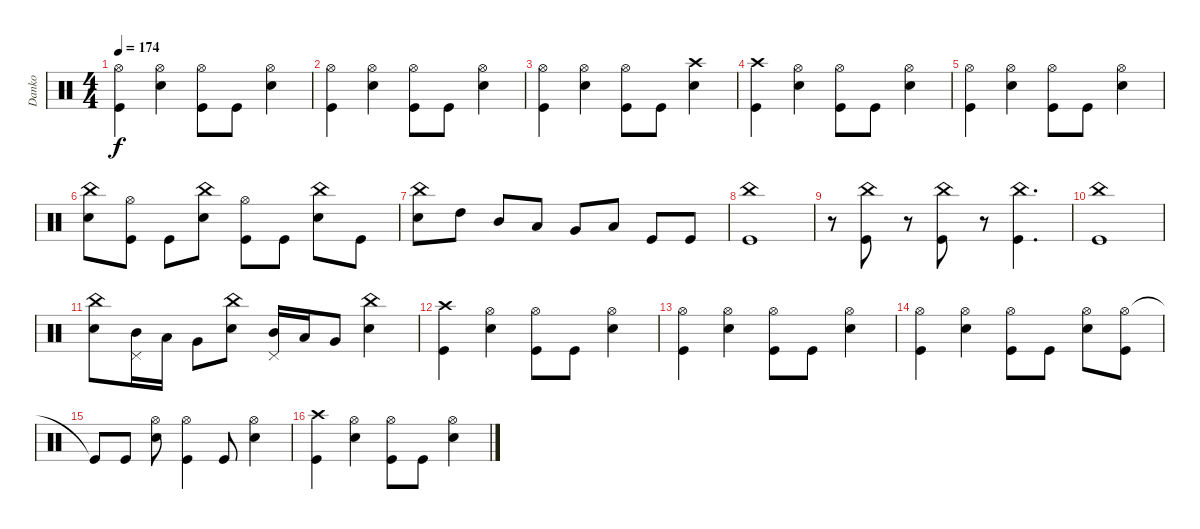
\track ("Danko" "Danko") {instrument percussion}
\staff {score}
\articulation defaults
\ts (4 4)
\tempo 174
\clef neutral
\ks c
("Hi-Hat (open)" "Kick (hit)").4{dy f} ("Hi-Hat (open)" "Snare (hit) 2").4 ("Hi-Hat (open)" "Kick (hit)").8 "Kick (hit)".8 ("Hi-Hat (open)" "Snare (hit) 2").4 |
("Hi-Hat (open)" "Kick (hit)").4 ("Hi-Hat (open)" "Snare (hit) 2").4 ("Hi-Hat (open)" "Kick (hit)").8 "Kick (hit)".8 ("Hi-Hat (open)" "Snare (hit) 2").4 |
("Hi-Hat (open)" "Kick (hit)").4 ("Hi-Hat (open)" "Snare (hit) 2").4 ("Hi-Hat (open)" "Kick (hit)").8 "Kick (hit)".8 ("Crash high (hit)" "Snare (hit) 2").4 |
("Crash high (hit)" "Kick (hit)").4 ("Hi-Hat (open)" "Snare (hit) 2").4 ("Hi-Hat (open)" "Kick (hit)").8 "Kick (hit)".8 ("Hi-Hat (open)" "Snare (hit) 2").4 |
("Hi-Hat (open)" "Kick (hit)").4 ("Hi-Hat (open)" "Snare (hit) 2").4 ("Hi-Hat (open)" "Kick (hit)").8 "Kick (hit)".8 ("Hi-Hat (open)" "Snare (hit) 2").4 |
("Snare (hit) 2" "China (hit)").8 ("Kick (hit)" "Hi-Hat (open)").8 "Kick (hit)".8 ("Snare (hit) 2" "China (hit)").8 ("Kick (hit)" "Hi-Hat (open)").8 "Kick (hit)".8 ("Snare (hit) 2" "China (hit)").8 "Kick (hit)".8 |
("Snare (hit) 2" "China (hit)").8 "High Tom (hit)".8 "Mid Tom (hit)".8 "Low Tom (hit)".8 "Very Low Tom (hit)".8 "Low Floor Tom (hit)".8 "Kick (hit)".8 "Kick (hit)".8 |
("Kick (hit)" "China (hit)").1 |
r.8 ("Kick (hit)" "China (hit)").8 r.8 ("Kick (hit)" "China (hit)").8 r.8 ("Kick (hit)" "China (hit)").4{d} |
("Kick (hit)" "China (hit)").1 |
("Snare (hit) 2" "China (hit)").8 ("Pedal Hi-Hat (hit)" "Mid Tom (hit)").16 "Low Tom (hit)".16 "Very Low Tom (hit)".8 ("Snare (hit) 2" "China (hit)").8 ("Pedal Hi-Hat (hit)" "Mid Tom (hit)").16 "Low Tom (hit)".16 "Very Low Tom (hit)".8 ("Snare (hit) 2" "China (hit)").4 |
("Crash high (hit)" "Kick (hit)").4 ("Hi-Hat (open)" "Snare (hit) 2").4 ("Hi-Hat (open)" "Kick (hit)").8 "Kick (hit)".8 ("Hi-Hat (open)" "Snare (hit) 2").4 |
("Hi-Hat (open)" "Kick (hit)").4 ("Hi-Hat (open)" "Snare (hit) 2").4 ("Hi-Hat (open)" "Kick (hit)").8 "Kick (hit)".8 ("Hi-Hat (open)" "Snare (hit) 2").4 |
("Hi-Hat (open)" "Kick (hit)").4 ("Hi-Hat (open)" "Snare (hit) 2").4 ("Hi-Hat (open)" "Kick (hit)").8 "Kick (hit)".8 ("Hi-Hat (open)" "Snare (hit) 2").8 ("Hi-Hat (open)" "Kick (hit)").8 |
"Kick (hit)"{t}.8 "Kick (hit)".8 ("Hi-Hat (open)" "Snare (hit) 2").8 ("Hi-Hat (open)" "Kick (hit)").4 "Kick (hit)".8 ("Snare (hit) 2" "Hi-Hat (open)").4 |
("Crash high (hit)" "Kick (hit)").4 ("Hi-Hat (open)" "Snare (hit) 2").4 ("Hi-Hat (open)" "Kick (hit)").8 "Kick (hit)".8 ("Hi-Hat (open)" "Snare (hit) 2").4
